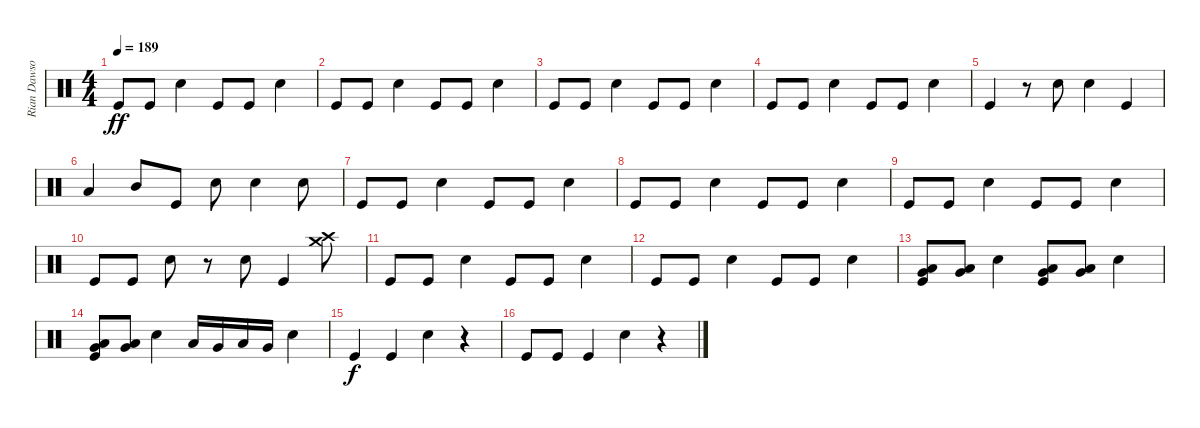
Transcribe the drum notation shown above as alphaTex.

\track ("Rian Dawson" "Rian Dawso") {instrument percussion}
\staff {score}
\articulation defaults
\ts (4 4)
\tempo 189
\clef neutral
\ks c "Kick (hit)".8{dy ff} "Kick (hit)".8 "Snare (hit) 2".4 "Kick (hit)".8 "Kick (hit)".8 "Snare (hit) 2".4
|
"Kick (hit)".8 "Kick (hit)".8 "Snare (hit) 2".4 "Kick (hit)".8 "Kick (hit)".8 "Snare (hit) 2".4 |
"Kick (hit)".8 "Kick (hit)".8 "Snare (hit) 2".4 "Kick (hit)".8 "Kick (hit)".8 "Snare (hit) 2".4 |
"Kick (hit)".8 "Kick (hit)".8 "Snare (hit) 2".4 "Kick (hit)".8 "Kick (hit)".8 "Snare (hit) 2".4 |
"Kick (hit)".4 r.8 "Snare (hit) 2".8 "Snare (hit) 2".4 "Kick (hit)".4 |
"Low Tom (hit)".4 "Mid Tom (hit)".8 "Kick (hit)".8 "Snare (hit) 2".8 "Snare (hit) 2".4 "Snare (hit) 2".8 |
"Kick (hit)".8 "Kick (hit)".8 "Snare (hit) 2".4 "Kick (hit)".8 "Kick (hit)".8 "Snare (hit) 2".4 |
"Kick (hit)".8 "Kick (hit)".8 "Snare (hit) 2".4 "Kick (hit)".8 "Kick (hit)".8 "Snare (hit) 2".4 |
"Kick (hit)".8 "Kick (hit)".8 "Snare (hit) 2".4 "Kick (hit)".8 "Kick (hit)".8 "Snare (hit) 2".4 |
"Kick (hit)".8 "Kick (hit)".8 "Snare (hit) 2".8 r.8 "Snare (hit) 2".8 "Kick (hit)".4 ("Crash high (hit)" "Crash medium (hit)").8 |
"Kick (hit)".8 "Kick (hit)".8 "Snare (hit) 2".4 "Kick (hit)".8 "Kick (hit)".8 "Snare (hit) 2".4 |
"Kick (hit)".8 "Kick (hit)".8 "Snare (hit) 2".4 "Kick (hit)".8 "Kick (hit)".8 "Snare (hit) 2".4 |
("Very Low Tom (hit)" "Low Tom (hit)" "Kick (hit)").8 ("Very Low Tom (hit)" "Low Tom (hit)").8 "Snare (hit) 2".4 ("Very Low Tom (hit)" "Low Tom (hit)" "Kick (hit)").8 ("Very Low Tom (hit)" "Low Tom (hit)").8 "Snare (hit) 2".4 |
("Very Low Tom (hit)" "Low Tom (hit)" "Kick (hit)").8 ("Very Low Tom (hit)" "Low Tom (hit)").8 "Snare (hit) 2".4 "Low Tom (hit)".16 "Very Low Tom (hit)".16 "Low Tom (hit)".16 "Very Low Tom (hit)".16 "Snare (hit) 2".4 |
"Kick (hit)".4{dy f} "Kick (hit)".4 "Snare (hit) 2".4 r.4 |
"Kick (hit)".8 "Kick (hit)".8 "Kick (hit)".4 "Snare (hit) 2".4 r.4
